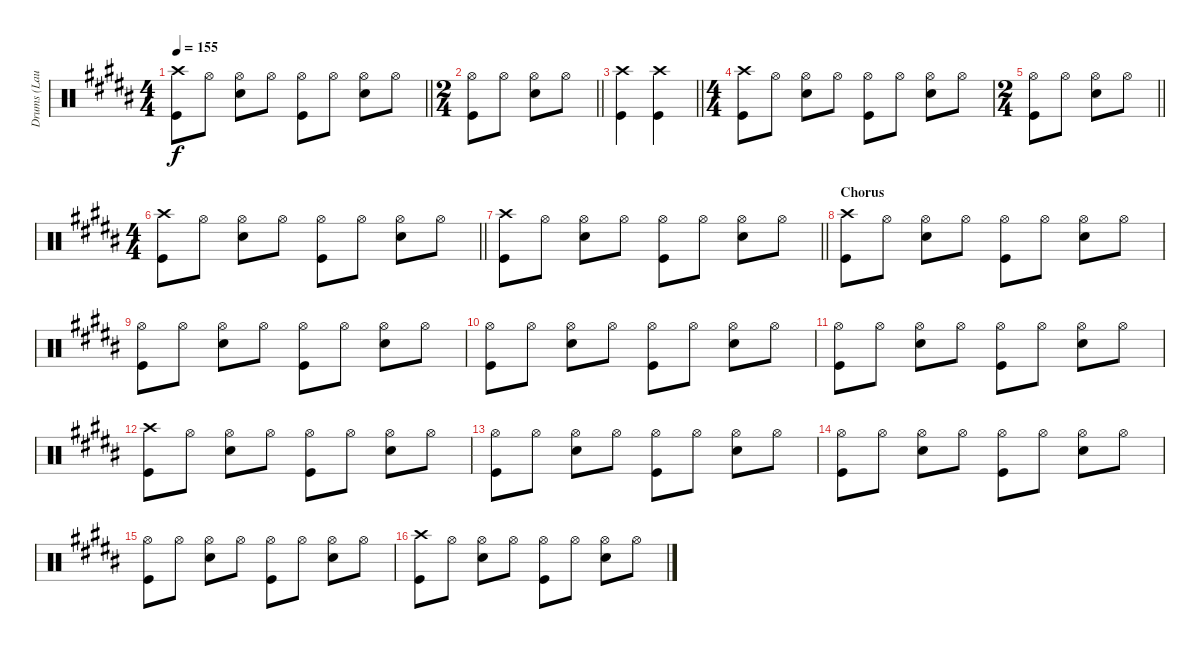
\track ("Drums (Laust Sonne)" "Drums (Lau") {instrument percussion}
\staff {score}
\articulation defaults
\ts (4 4)
\tempo 155
\clef neutral
\barLineRight lightlight
\ks b
("Crash high (hit)" "Kick (hit)").8{dy f} "Hi-Hat (open)".8 ("Hi-Hat (open)" "Snare (hit) 2").8 "Hi-Hat (open)".8 ("Hi-Hat (open)" "Kick (hit)").8 "Hi-Hat (open)".8 ("Hi-Hat (open)" "Snare (hit) 2").8 "Hi-Hat (open)".8 |
\ts (2 4)
\barLineRight lightlight
("Hi-Hat (open)" "Kick (hit)").8 "Hi-Hat (open)".8 ("Hi-Hat (open)" "Snare (hit) 2").8 "Hi-Hat (open)".8 |
\barLineRight lightlight
("Crash high (hit)" "Kick (hit)").4 ("Crash high (hit)" "Kick (hit)").4 |
\ts (4 4)
("Crash high (hit)" "Kick (hit)").8 "Hi-Hat (open)".8 ("Hi-Hat (open)" "Snare (hit) 2").8 "Hi-Hat (open)".8 ("Hi-Hat (open)" "Kick (hit)").8 "Hi-Hat (open)".8 ("Hi-Hat (open)" "Snare (hit) 2").8 "Hi-Hat (open)".8 |
\ts (2 4)
\barLineRight lightlight
("Hi-Hat (open)" "Kick (hit)").8 "Hi-Hat (open)".8 ("Hi-Hat (open)" "Snare (hit) 2").8 "Hi-Hat (open)".8 |
\ts (4 4)
\barLineRight lightlight
("Crash high (hit)" "Kick (hit)").8 "Hi-Hat (open)".8 ("Hi-Hat (open)" "Snare (hit) 2").8 "Hi-Hat (open)".8 ("Hi-Hat (open)" "Kick (hit)").8 "Hi-Hat (open)".8 ("Hi-Hat (open)" "Snare (hit) 2").8 "Hi-Hat (open)".8 |
\barLineRight lightlight
("Crash high (hit)" "Kick (hit)").8 "Hi-Hat (open)".8 ("Hi-Hat (open)" "Snare (hit) 2").8 "Hi-Hat (open)".8 ("Hi-Hat (open)" "Kick (hit)").8 "Hi-Hat (open)".8 ("Hi-Hat (open)" "Snare (hit) 2").8 "Hi-Hat (open)".8 |
\section ("" "Chorus")
("Crash high (hit)" "Kick (hit)").8 "Hi-Hat (open)".8 ("Hi-Hat (open)" "Snare (hit) 2").8 "Hi-Hat (open)".8 ("Hi-Hat (open)" "Kick (hit)").8 "Hi-Hat (open)".8 ("Hi-Hat (open)" "Snare (hit) 2").8 "Hi-Hat (open)".8 |
("Hi-Hat (open)" "Kick (hit)").8 "Hi-Hat (open)".8 ("Hi-Hat (open)" "Snare (hit) 2").8 "Hi-Hat (open)".8 ("Hi-Hat (open)" "Kick (hit)").8 "Hi-Hat (open)".8 ("Hi-Hat (open)" "Snare (hit) 2").8 "Hi-Hat (open)".8 |
("Hi-Hat (open)" "Kick (hit)").8 "Hi-Hat (open)".8 ("Hi-Hat (open)" "Snare (hit) 2").8 "Hi-Hat (open)".8 ("Hi-Hat (open)" "Kick (hit)").8 "Hi-Hat (open)".8 ("Hi-Hat (open)" "Snare (hit) 2").8 "Hi-Hat (open)".8 |
("Hi-Hat (open)" "Kick (hit)").8 "Hi-Hat (open)".8 ("Hi-Hat (open)" "Snare (hit) 2").8 "Hi-Hat (open)".8 ("Hi-Hat (open)" "Kick (hit)").8 "Hi-Hat (open)".8 ("Hi-Hat (open)" "Snare (hit) 2").8 "Hi-Hat (open)".8 |
("Crash high (hit)" "Kick (hit)").8 "Hi-Hat (open)".8 ("Hi-Hat (open)" "Snare (hit) 2").8 "Hi-Hat (open)".8 ("Hi-Hat (open)" "Kick (hit)").8 "Hi-Hat (open)".8 ("Hi-Hat (open)" "Snare (hit) 2").8 "Hi-Hat (open)".8 |
("Hi-Hat (open)" "Kick (hit)").8 "Hi-Hat (open)".8 ("Hi-Hat (open)" "Snare (hit) 2").8 "Hi-Hat (open)".8 ("Hi-Hat (open)" "Kick (hit)").8 "Hi-Hat (open)".8 ("Hi-Hat (open)" "Snare (hit) 2").8 "Hi-Hat (open)".8 |
("Hi-Hat (open)" "Kick (hit)").8 "Hi-Hat (open)".8 ("Hi-Hat (open)" "Snare (hit) 2").8 "Hi-Hat (open)".8 ("Hi-Hat (open)" "Kick (hit)").8 "Hi-Hat (open)".8 ("Hi-Hat (open)" "Snare (hit) 2").8 "Hi-Hat (open)".8 |
("Hi-Hat (open)" "Kick (hit)").8 "Hi-Hat (open)".8 ("Hi-Hat (open)" "Snare (hit) 2").8 "Hi-Hat (open)".8 ("Hi-Hat (open)" "Kick (hit)").8 "Hi-Hat (open)".8 ("Hi-Hat (open)" "Snare (hit) 2").8 "Hi-Hat (open)".8 |
("Crash high (hit)" "Kick (hit)").8 "Hi-Hat (open)".8 ("Hi-Hat (open)" "Snare (hit) 2").8 "Hi-Hat (open)".8 ("Hi-Hat (open)" "Kick (hit)").8 "Hi-Hat (open)".8 ("Hi-Hat (open)" "Snare (hit) 2").8 "Hi-Hat (open)".8
